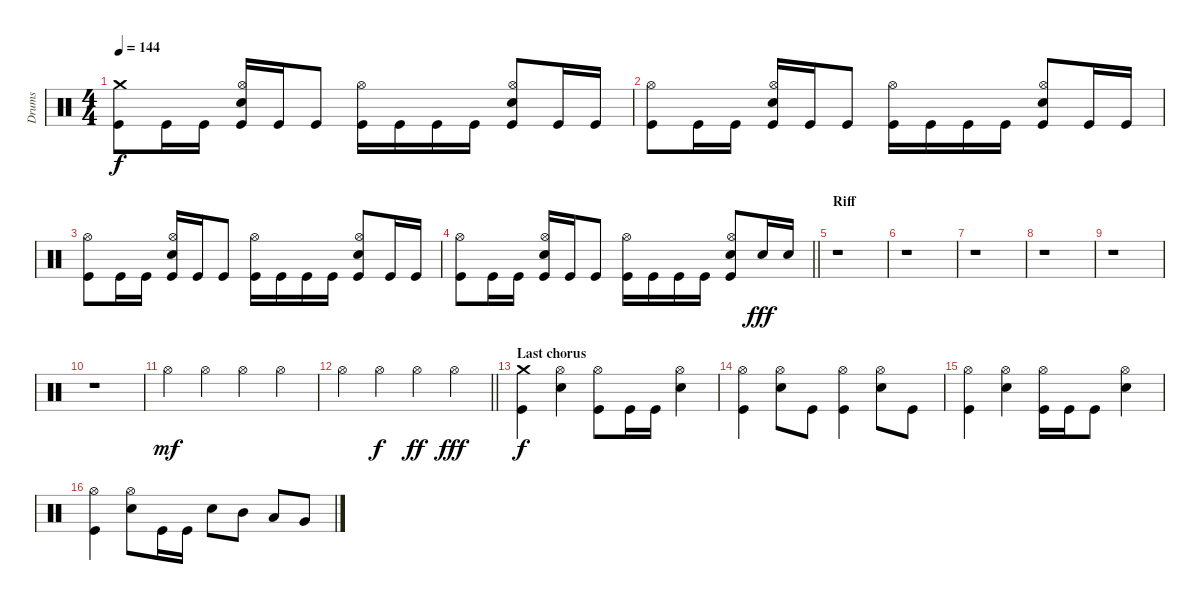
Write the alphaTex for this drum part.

\track ("Drums" "Drums") {instrument percussion}
\staff {score}
\articulation defaults
\ts (4 4)
\tempo 144
\clef neutral
\ks c
("Crash medium (hit)" "Kick (hit)").8{dy f} "Kick (hit)".16 "Kick (hit)".16 ("Hi-Hat (open)" "Snare (hit) 2" "Kick (hit)").16 "Kick (hit)".16 "Kick (hit)".8 ("Hi-Hat (open)" "Kick (hit)").16 "Kick (hit)".16 "Kick (hit)".16 "Kick (hit)".16 ("Hi-Hat (open)" "Snare (hit) 2" "Kick (hit)").8 "Kick (hit)".16 "Kick (hit)".16 |
("Hi-Hat (open)" "Kick (hit)").8 "Kick (hit)".16 "Kick (hit)".16 ("Hi-Hat (open)" "Snare (hit) 2" "Kick (hit)").16 "Kick (hit)".16 "Kick (hit)".8 ("Hi-Hat (open)" "Kick (hit)").16 "Kick (hit)".16 "Kick (hit)".16 "Kick (hit)".16 ("Hi-Hat (open)" "Snare (hit) 2" "Kick (hit)").8 "Kick (hit)".16 "Kick (hit)".16 |
("Hi-Hat (open)" "Kick (hit)").8 "Kick (hit)".16 "Kick (hit)".16 ("Hi-Hat (open)" "Snare (hit) 2" "Kick (hit)").16 "Kick (hit)".16 "Kick (hit)".8 ("Hi-Hat (open)" "Kick (hit)").16 "Kick (hit)".16 "Kick (hit)".16 "Kick (hit)".16 ("Hi-Hat (open)" "Snare (hit) 2" "Kick (hit)").8 "Kick (hit)".16 "Kick (hit)".16 |
\barLineRight lightlight
("Hi-Hat (open)" "Kick (hit)").8 "Kick (hit)".16 "Kick (hit)".16 ("Hi-Hat (open)" "Snare (hit) 2" "Kick (hit)").16 "Kick (hit)".16 "Kick (hit)".8 ("Hi-Hat (open)" "Kick (hit)").16 "Kick (hit)".16 "Kick (hit)".16 "Kick (hit)".16 ("Hi-Hat (open)" "Snare (hit) 2" "Kick (hit)").8 "Snare (hit) 2".16{dy fff} "Snare (hit) 2".16 |
\section ("" "Riff")
r.1 |
r.1 |
r.1 |
r.1 |
r.1 |
r.1 |
"Hi-Hat (open)".4{dy mf} "Hi-Hat (open)".4 "Hi-Hat (open)".4 "Hi-Hat (open)".4 |
\barLineRight lightlight "Hi-Hat (open)".4 "Hi-Hat (open)".4{dy f} "Hi-Hat (open)".4{dy ff} "Hi-Hat (open)".4{dy fff}
|
\section ("" "Last chorus")
("Crash medium (hit)" "Kick (hit)").4{dy f} ("Hi-Hat (open)" "Snare (hit) 2").4 ("Hi-Hat (open)" "Kick (hit)").8 "Kick (hit)".16 "Kick (hit)".16 ("Hi-Hat (open)" "Snare (hit) 2").4 |
("Hi-Hat (open)" "Kick (hit)").4 ("Hi-Hat (open)" "Snare (hit) 2").8 "Kick (hit)".8 ("Hi-Hat (open)" "Kick (hit)").4 ("Hi-Hat (open)" "Snare (hit) 2").8 "Kick (hit)".8 |
("Hi-Hat (open)" "Kick (hit)").4 ("Hi-Hat (open)" "Snare (hit) 2").4 ("Hi-Hat (open)" "Kick (hit)").16 "Kick (hit)".16 "Kick (hit)".8 ("Hi-Hat (open)" "Snare (hit) 2").4 |
("Hi-Hat (open)" "Kick (hit)").4 ("Hi-Hat (open)" "Snare (hit) 2").8 "Kick (hit)".16 "Kick (hit)".16 "Snare (hit) 2".8 "Mid Tom (hit)".8 "Low Tom (hit)".8 "Very Low Tom (hit)".8
